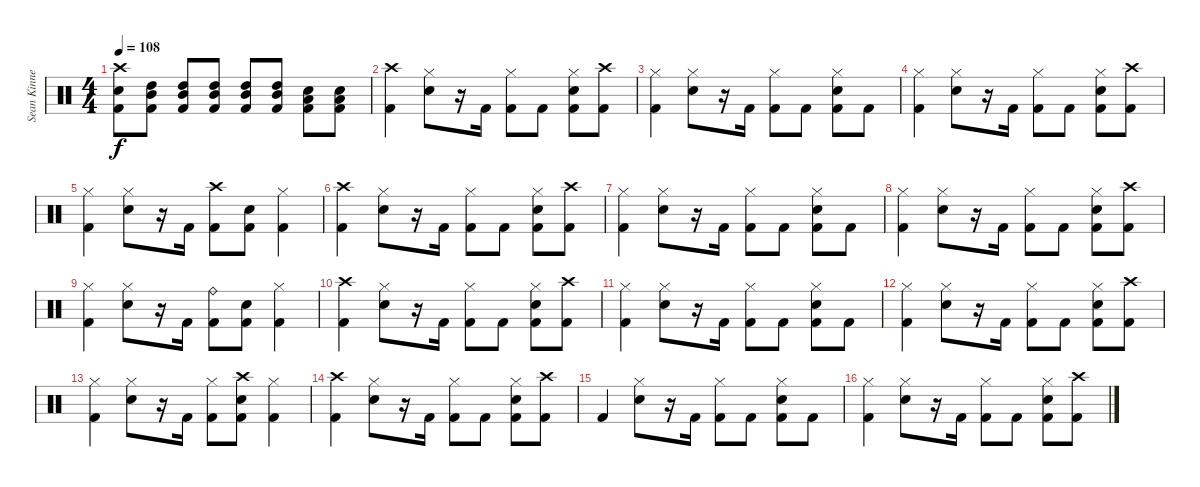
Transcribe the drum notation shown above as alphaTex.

\track ("Sean Kinney- Drums" "Sean Kinne") {instrument percussion}
\staff {score}
\articulation defaults
\ts (4 4)
\tempo 108
\clef neutral
\ks c
("Crash high (hit)" "Electric Snare (hit)" "Kick (hit) 2").8{dy f} ("Mid Tom (hit)" "High Tom (hit)" "Kick (hit) 2").8 ("Mid Tom (hit)" "High Tom (hit)" "Kick (hit) 2").8 ("Mid Tom (hit)" "High Tom (hit)" "Kick (hit) 2").8 ("Mid Tom (hit)" "High Tom (hit)" "Kick (hit) 2").8 ("Mid Tom (hit)" "High Tom (hit)" "Kick (hit) 2").8 ("Electric Snare (hit)" "Low Tom (hit)" "Kick (hit) 2").8 ("Electric Snare (hit)" "Low Tom (hit)" "Kick (hit) 2").8 |
("Crash high (hit)" "Kick (hit) 2").4 ("Hi-Hat (closed)" "Electric Snare (hit)").8 r.16 "Kick (hit) 2".16 ("Hi-Hat (closed)" "Kick (hit) 2").8 "Kick (hit) 2".8 ("Hi-Hat (closed)" "Electric Snare (hit)" "Kick (hit) 2").8 ("Crash high (hit)" "Kick (hit) 2").8 |
("Hi-Hat (closed)" "Kick (hit) 2").4 ("Hi-Hat (closed)" "Electric Snare (hit)").8 r.16 "Kick (hit) 2".16 ("Hi-Hat (closed)" "Kick (hit) 2").8 "Kick (hit) 2".8 ("Hi-Hat (closed)" "Electric Snare (hit)" "Kick (hit) 2").8 "Kick (hit) 2".8 |
("Hi-Hat (closed)" "Kick (hit) 2").4 ("Hi-Hat (closed)" "Electric Snare (hit)").8 r.16 "Kick (hit) 2".16 ("Hi-Hat (closed)" "Kick (hit) 2").8 "Kick (hit) 2".8 ("Hi-Hat (closed)" "Electric Snare (hit)" "Kick (hit) 2").8 ("Crash high (hit)" "Kick (hit) 2").8 |
("Hi-Hat (closed)" "Kick (hit) 2").4 ("Hi-Hat (closed)" "Electric Snare (hit)").8 r.16 "Kick (hit) 2".16 ("Crash high (hit)" "Kick (hit) 2").8 ("Electric Snare (hit)" "Kick (hit) 2").8 ("Hi-Hat (closed)" "Kick (hit) 2").4 |
("Crash high (hit)" "Kick (hit) 2").4 ("Hi-Hat (closed)" "Electric Snare (hit)").8 r.16 "Kick (hit) 2".16 ("Hi-Hat (closed)" "Kick (hit) 2").8 "Kick (hit) 2".8 ("Hi-Hat (closed)" "Electric Snare (hit)" "Kick (hit) 2").8 ("Crash high (hit)" "Kick (hit) 2").8 |
("Hi-Hat (closed)" "Kick (hit) 2").4 ("Hi-Hat (closed)" "Electric Snare (hit)").8 r.16 "Kick (hit) 2".16 ("Hi-Hat (closed)" "Kick (hit) 2").8 "Kick (hit) 2".8 ("Hi-Hat (closed)" "Electric Snare (hit)" "Kick (hit) 2").8 "Kick (hit) 2".8 |
("Hi-Hat (closed)" "Kick (hit) 2").4 ("Hi-Hat (closed)" "Electric Snare (hit)").8 r.16 "Kick (hit) 2".16 ("Hi-Hat (closed)" "Kick (hit) 2").8 "Kick (hit) 2".8 ("Hi-Hat (closed)" "Electric Snare (hit)" "Kick (hit) 2").8 ("Crash high (hit)" "Kick (hit) 2").8 |
("Hi-Hat (closed)" "Kick (hit) 2").4 ("Hi-Hat (closed)" "Electric Snare (hit)").8 r.16 "Kick (hit) 2".16 ("Ride (bell)" "Kick (hit) 2").8 ("Electric Snare (hit)" "Kick (hit) 2").8 ("Hi-Hat (closed)" "Kick (hit) 2").4 |
("Crash high (hit)" "Kick (hit) 2").4 ("Hi-Hat (closed)" "Electric Snare (hit)").8 r.16 "Kick (hit) 2".16 ("Hi-Hat (closed)" "Kick (hit) 2").8 "Kick (hit) 2".8 ("Hi-Hat (closed)" "Electric Snare (hit)" "Kick (hit) 2").8 ("Crash high (hit)" "Kick (hit) 2").8 |
("Hi-Hat (closed)" "Kick (hit) 2").4 ("Hi-Hat (closed)" "Electric Snare (hit)").8 r.16 "Kick (hit) 2".16 ("Hi-Hat (closed)" "Kick (hit) 2").8 "Kick (hit) 2".8 ("Hi-Hat (closed)" "Electric Snare (hit)" "Kick (hit) 2").8 "Kick (hit) 2".8 |
("Hi-Hat (closed)" "Kick (hit) 2").4 ("Hi-Hat (closed)" "Electric Snare (hit)").8 r.16 "Kick (hit) 2".16 ("Hi-Hat (closed)" "Kick (hit) 2").8 "Kick (hit) 2".8 ("Hi-Hat (closed)" "Electric Snare (hit)" "Kick (hit) 2").8 ("Crash high (hit)" "Kick (hit) 2").8 |
("Hi-Hat (closed)" "Kick (hit) 2").4 ("Hi-Hat (closed)" "Electric Snare (hit)").8 r.16 "Kick (hit) 2".16 ("Hi-Hat (closed)" "Kick (hit) 2").8 ("Crash high (hit)" "Electric Snare (hit)" "Kick (hit) 2").8 ("Hi-Hat (closed)" "Kick (hit) 2").4 |
("Crash high (hit)" "Kick (hit) 2").4 ("Hi-Hat (closed)" "Electric Snare (hit)").8 r.16 "Kick (hit) 2".16 ("Hi-Hat (closed)" "Kick (hit) 2").8 "Kick (hit) 2".8 ("Hi-Hat (closed)" "Electric Snare (hit)" "Kick (hit) 2").8 ("Crash high (hit)" "Kick (hit) 2").8 |
"Kick (hit) 2".4 ("Hi-Hat (closed)" "Electric Snare (hit)").8 r.16 "Kick (hit) 2".16 ("Hi-Hat (closed)" "Kick (hit) 2").8 "Kick (hit) 2".8 ("Hi-Hat (closed)" "Electric Snare (hit)" "Kick (hit) 2").8 "Kick (hit) 2".8 |
("Hi-Hat (closed)" "Kick (hit) 2").4 ("Hi-Hat (closed)" "Electric Snare (hit)").8 r.16 "Kick (hit) 2".16 ("Hi-Hat (closed)" "Kick (hit) 2").8 "Kick (hit) 2".8 ("Hi-Hat (closed)" "Electric Snare (hit)" "Kick (hit) 2").8 ("Crash high (hit)" "Kick (hit) 2").8
